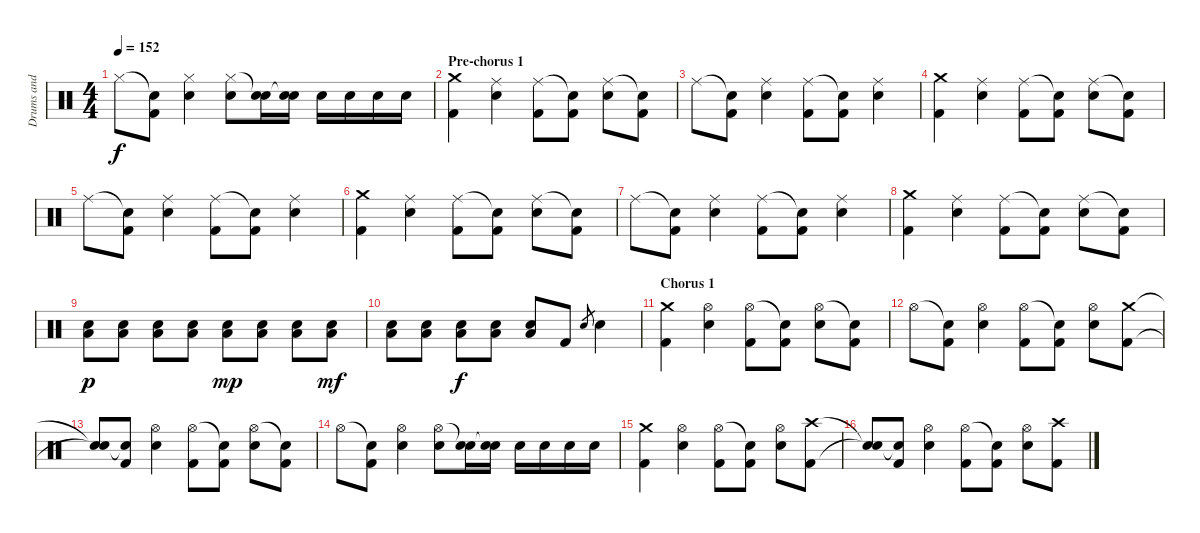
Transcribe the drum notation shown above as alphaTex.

\track ("Drums and Percussion" "Drums and ") {instrument percussion}
\staff {score}
\articulation defaults
\ts (4 4)
\tempo 152
\clef neutral
\ks c "Hi-Hat (closed)".8{dy f}
("Snare (hit)"{t} "Kick (hit) 2").8 ("Hi-Hat (closed)" "Snare (hit) 2").4 ("Hi-Hat (closed)" "Snare (hit) 2").8 ("Snare (hit)"{t} "Snare (hit) 2").16 ("Snare (hit)"{t} "Snare (hit) 2").16 "Snare (hit) 2".16 "Snare (hit) 2".16 "Snare (hit) 2".16 "Snare (hit) 2".16 |
\section ("" "Pre-chorus 1")
("Crash medium (hit)" "Kick (hit) 2").4 ("Ride (middle)" "Snare (hit) 2").4 ("Ride (middle)" "Kick (hit) 2").8 ("Snare (hit)"{t} "Kick (hit) 2").8 ("Ride (middle)" "Snare (hit) 2").8 ("Snare (hit)"{t} "Kick (hit) 2").8 |
"Ride (middle)".8 ("Snare (hit)"{t} "Kick (hit) 2").8 ("Ride (middle)" "Snare (hit) 2").4 ("Ride (middle)" "Kick (hit) 2").8 ("Snare (hit)"{t} "Kick (hit) 2").8 ("Ride (middle)" "Snare (hit) 2").4 |
("Crash medium (hit)" "Kick (hit) 2").4 ("Ride (middle)" "Snare (hit) 2").4 ("Ride (middle)" "Kick (hit) 2").8 ("Snare (hit)"{t} "Kick (hit) 2").8 ("Ride (middle)" "Snare (hit) 2").8 ("Snare (hit)"{t} "Kick (hit) 2").8 |
"Ride (middle)".8 ("Snare (hit)"{t} "Kick (hit) 2").8 ("Ride (middle)" "Snare (hit) 2").4 ("Ride (middle)" "Kick (hit) 2").8 ("Snare (hit)"{t} "Kick (hit) 2").8 ("Ride (middle)" "Snare (hit) 2").4 |
("Crash medium (hit)" "Kick (hit) 2").4 ("Ride (middle)" "Snare (hit) 2").4 ("Ride (middle)" "Kick (hit) 2").8 ("Snare (hit)"{t} "Kick (hit) 2").8 ("Ride (middle)" "Snare (hit) 2").8 ("Snare (hit)"{t} "Kick (hit) 2").8 |
"Ride (middle)".8 ("Snare (hit)"{t} "Kick (hit) 2").8 ("Ride (middle)" "Snare (hit) 2").4 ("Ride (middle)" "Kick (hit) 2").8 ("Snare (hit)"{t} "Kick (hit) 2").8 ("Ride (middle)" "Snare (hit) 2").4 |
("Crash medium (hit)" "Kick (hit) 2").4 ("Ride (middle)" "Snare (hit) 2").4 ("Ride (middle)" "Kick (hit) 2").8 ("Snare (hit)"{t} "Kick (hit) 2").8 ("Ride (middle)" "Snare (hit) 2").8 ("Snare (hit)"{t} "Kick (hit) 2").8 |
("Snare (hit) 2" "Low Floor Tom (hit)").8{dy p} ("Snare (hit) 2" "Low Floor Tom (hit)").8 ("Snare (hit) 2" "Low Floor Tom (hit)").8 ("Snare (hit) 2" "Low Floor Tom (hit)").8 ("Snare (hit) 2" "Low Floor Tom (hit)").8{dy mp} ("Snare (hit) 2" "Low Floor Tom (hit)").8 ("Snare (hit) 2" "Low Floor Tom (hit)").8 ("Snare (hit) 2" "Low Floor Tom (hit)").8{dy mf} |
("Snare (hit) 2" "Low Floor Tom (hit)").8 ("Snare (hit) 2" "Low Floor Tom (hit)").8 ("Snare (hit) 2" "Low Floor Tom (hit)").8{dy f} ("Snare (hit) 2" "Low Floor Tom (hit)").8 ("Snare (hit) 2" "Low Floor Tom (hit)").8 "Kick (hit) 2".8 "Snare (hit) 2".8{gr} "Snare (hit) 2".4 |
\section ("" "Chorus 1")
("Crash medium (hit)" "Kick (hit) 2").4 ("Hi-Hat (open)" "Snare (hit) 2").4 ("Hi-Hat (open)" "Kick (hit) 2").8 ("Snare (hit)"{t} "Kick (hit) 2").8 ("Hi-Hat (open)" "Snare (hit) 2").8 ("Snare (hit)"{t} "Kick (hit) 2").8 |
"Hi-Hat (open)".8 ("Snare (hit)"{t} "Kick (hit) 2").8 ("Hi-Hat (open)" "Snare (hit) 2").4 ("Hi-Hat (open)" "Kick (hit) 2").8 ("Snare (hit)"{t} "Kick (hit) 2").8 ("Hi-Hat (open)" "Snare (hit) 2").8 ("Crash medium (hit)" "Kick (hit) 2").8 |
("Snare (hit)"{t} "Snare (hit)"{t}).8 ("Snare (hit)"{t} "Kick (hit) 2").8 ("Hi-Hat (open)" "Snare (hit) 2").4 ("Hi-Hat (open)" "Kick (hit) 2").8 ("Snare (hit)"{t} "Kick (hit) 2").8 ("Hi-Hat (open)" "Snare (hit) 2").8 ("Snare (hit)"{t} "Kick (hit) 2").8 |
"Hi-Hat (open)".8 ("Snare (hit)"{t} "Kick (hit) 2").8 ("Hi-Hat (open)" "Snare (hit) 2").4 ("Hi-Hat (open)" "Snare (hit) 2").8 ("Snare (hit)"{t} "Snare (hit) 2").16 ("Snare (hit)"{t} "Snare (hit) 2").16 "Snare (hit) 2".16 "Snare (hit) 2".16 "Snare (hit) 2".16 "Snare (hit) 2".16 |
("Crash medium (hit)" "Kick (hit) 2").4 ("Hi-Hat (open)" "Snare (hit) 2").4 ("Hi-Hat (open)" "Kick (hit) 2").8 ("Snare (hit)"{t} "Kick (hit) 2").8 ("Hi-Hat (open)" "Snare (hit) 2").8 ("Crash high (hit)" "Kick (hit) 2").8 |
("Snare (hit)"{t} "Snare (hit)"{t}).8 ("Snare (hit)"{t} "Kick (hit) 2").8 ("Hi-Hat (open)" "Snare (hit) 2").4 ("Hi-Hat (open)" "Kick (hit) 2").8 ("Snare (hit)"{t} "Kick (hit) 2").8 ("Hi-Hat (open)" "Snare (hit) 2").8 ("Crash high (hit)" "Kick (hit) 2").8
